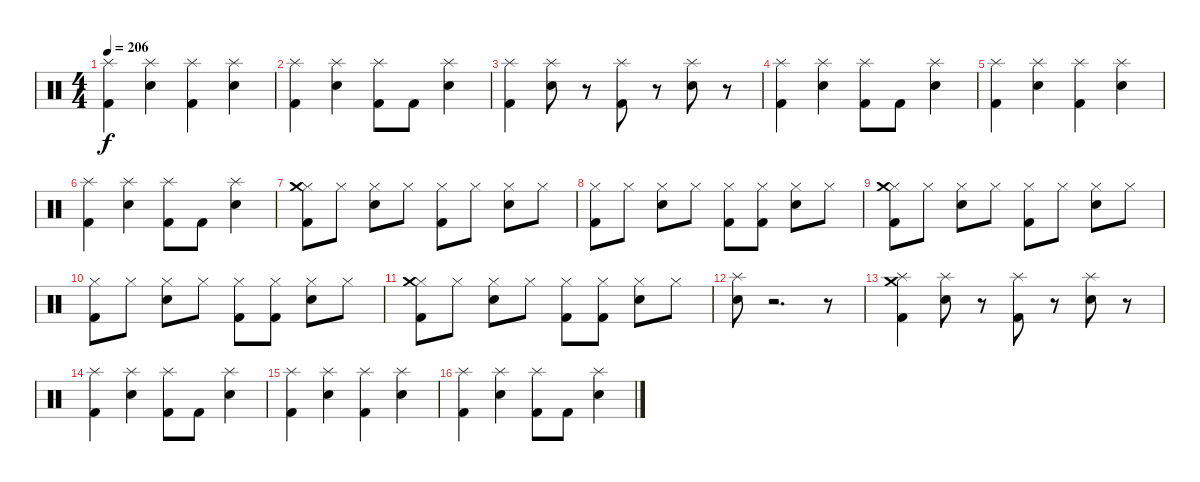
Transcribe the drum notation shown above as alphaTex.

\track "" {instrument percussion}
\staff {score}
\articulation defaults
\ts (4 4)
\tempo 206
\clef neutral
\ks c
("Splash (hit)" "Kick (hit) 2").4{dy f} ("Splash (hit)" "Electric Snare (hit)").4 ("Splash (hit)" "Kick (hit) 2").4 ("Splash (hit)" "Electric Snare (hit)").4 |
("Splash (hit)" "Kick (hit) 2").4 ("Splash (hit)" "Electric Snare (hit)").4 ("Splash (hit)" "Kick (hit) 2").8 "Kick (hit) 2".8 ("Splash (hit)" "Electric Snare (hit)").4 |
("Splash (hit)" "Kick (hit) 2").4 ("Splash (hit)" "Electric Snare (hit)").8 r.8 ("Splash (hit)" "Kick (hit) 2").8 r.8 ("Splash (hit)" "Electric Snare (hit)").8 r.8 |
("Splash (hit)" "Kick (hit) 2").4 ("Splash (hit)" "Electric Snare (hit)").4 ("Splash (hit)" "Kick (hit) 2").8 "Kick (hit) 2".8 ("Splash (hit)" "Electric Snare (hit)").4 |
("Splash (hit)" "Kick (hit) 2").4 ("Splash (hit)" "Electric Snare (hit)").4 ("Splash (hit)" "Kick (hit) 2").4 ("Splash (hit)" "Electric Snare (hit)").4 |
("Splash (hit)" "Kick (hit) 2").4 ("Splash (hit)" "Electric Snare (hit)").4 ("Splash (hit)" "Kick (hit) 2").8 "Kick (hit) 2".8 ("Splash (hit)" "Electric Snare (hit)").4 |
("Hi-Hat (closed)" "Crash medium (hit)" "Kick (hit) 2").8 "Hi-Hat (closed)".8 ("Hi-Hat (closed)" "Electric Snare (hit)").8 "Hi-Hat (closed)".8 ("Hi-Hat (closed)" "Kick (hit) 2").8 "Hi-Hat (closed)".8 ("Hi-Hat (closed)" "Electric Snare (hit)").8 "Hi-Hat (closed)".8 |
("Hi-Hat (closed)" "Kick (hit) 2").8 "Hi-Hat (closed)".8 ("Hi-Hat (closed)" "Electric Snare (hit)").8 "Hi-Hat (closed)".8 ("Hi-Hat (closed)" "Kick (hit) 2").8 ("Hi-Hat (closed)" "Kick (hit) 2").8 ("Hi-Hat (closed)" "Electric Snare (hit)").8 "Hi-Hat (closed)".8 |
("Hi-Hat (closed)" "Crash medium (hit)" "Kick (hit) 2").8 "Hi-Hat (closed)".8 ("Hi-Hat (closed)" "Electric Snare (hit)").8 "Hi-Hat (closed)".8 ("Hi-Hat (closed)" "Kick (hit) 2").8 "Hi-Hat (closed)".8 ("Hi-Hat (closed)" "Electric Snare (hit)").8 "Hi-Hat (closed)".8 |
("Hi-Hat (closed)" "Kick (hit) 2").8 "Hi-Hat (closed)".8 ("Hi-Hat (closed)" "Electric Snare (hit)").8 "Hi-Hat (closed)".8 ("Hi-Hat (closed)" "Kick (hit) 2").8 ("Hi-Hat (closed)" "Kick (hit) 2").8 ("Hi-Hat (closed)" "Electric Snare (hit)").8 "Hi-Hat (closed)".8 |
("Hi-Hat (closed)" "Crash medium (hit)" "Kick (hit) 2").8 "Hi-Hat (closed)".8 ("Hi-Hat (closed)" "Electric Snare (hit)").8 "Hi-Hat (closed)".8 ("Hi-Hat (closed)" "Kick (hit) 2").8 ("Kick (hit) 2" "Hi-Hat (closed)").8 ("Hi-Hat (closed)" "Electric Snare (hit)").8 "Hi-Hat (closed)".8 |
("Electric Snare (hit)" "Splash (hit)").8 r.2{d} r.8 |
("Splash (hit)" "Crash medium (hit)" "Kick (hit) 2").4 ("Splash (hit)" "Electric Snare (hit)").8 r.8 ("Splash (hit)" "Kick (hit) 2").8 r.8 ("Splash (hit)" "Electric Snare (hit)").8 r.8 |
("Splash (hit)" "Kick (hit) 2").4 ("Splash (hit)" "Electric Snare (hit)").4 ("Splash (hit)" "Kick (hit) 2").8 "Kick (hit) 2".8 ("Splash (hit)" "Electric Snare (hit)").4 |
("Splash (hit)" "Kick (hit) 2").4 ("Splash (hit)" "Electric Snare (hit)").4 ("Splash (hit)" "Kick (hit) 2").4 ("Splash (hit)" "Electric Snare (hit)").4 |
("Splash (hit)" "Kick (hit) 2").4 ("Splash (hit)" "Electric Snare (hit)").4 ("Splash (hit)" "Kick (hit) 2").8 "Kick (hit) 2".8 ("Splash (hit)" "Electric Snare (hit)").4
